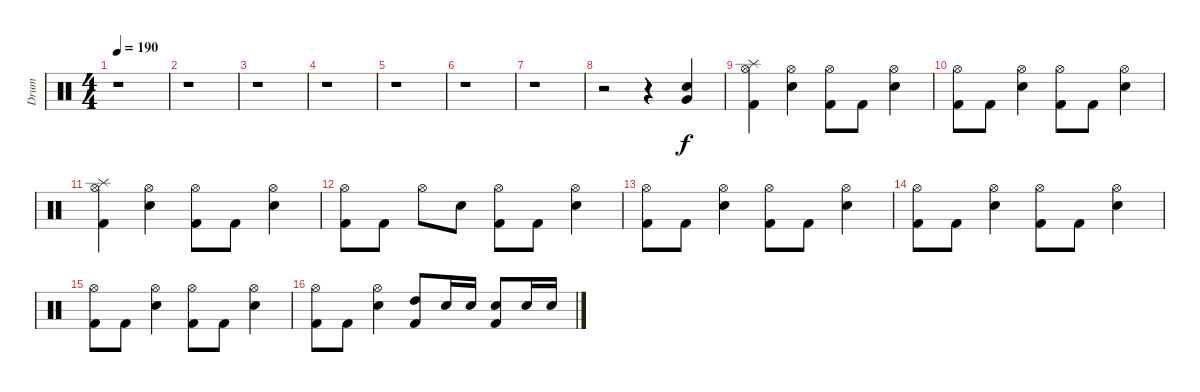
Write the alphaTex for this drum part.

\track ("Drum" "Drum") {instrument percussion}
\staff {score}
\articulation defaults
\ts (4 4)
\tempo 190
\clef neutral
\ks c
r.1{dy f} |
r.1 |
r.1 |
r.1 |
r.1 |
r.1 |
r.1 |
r.2 r.4 ("Very Low Tom (hit)" "Snare (hit) 2").4 |
("Splash (hit)" "Hi-Hat (open)" "Kick (hit) 2").4 ("Hi-Hat (open)" "Electric Snare (hit)").4 ("Hi-Hat (open)" "Kick (hit) 2").8 "Kick (hit) 2".8 ("Hi-Hat (open)" "Electric Snare (hit)").4 |
("Hi-Hat (open)" "Kick (hit) 2").8 "Kick (hit) 2".8 ("Hi-Hat (open)" "Electric Snare (hit)").4 ("Hi-Hat (open)" "Kick (hit) 2").8 "Kick (hit) 2".8 ("Hi-Hat (open)" "Electric Snare (hit)").4 |
("Splash (hit)" "Hi-Hat (open)" "Kick (hit) 2").4 ("Hi-Hat (open)" "Electric Snare (hit)").4 ("Hi-Hat (open)" "Kick (hit) 2").8 "Kick (hit) 2".8 ("Hi-Hat (open)" "Electric Snare (hit)").4 |
("Hi-Hat (open)" "Kick (hit) 2").8 "Kick (hit) 2".8 "Hi-Hat (open)".8 "Electric Snare (hit)".8 ("Hi-Hat (open)" "Kick (hit) 2").8 "Kick (hit) 2".8 ("Hi-Hat (open)" "Electric Snare (hit)").4 |
("Hi-Hat (open)" "Kick (hit) 2").8 "Kick (hit) 2".8 ("Hi-Hat (open)" "Electric Snare (hit)").4 ("Hi-Hat (open)" "Kick (hit) 2").8 "Kick (hit) 2".8 ("Hi-Hat (open)" "Electric Snare (hit)").4 |
("Hi-Hat (open)" "Kick (hit) 2").8 "Kick (hit) 2".8 ("Hi-Hat (open)" "Electric Snare (hit)").4 ("Hi-Hat (open)" "Kick (hit) 2").8 "Kick (hit) 2".8 ("Hi-Hat (open)" "Electric Snare (hit)").4 |
("Hi-Hat (open)" "Kick (hit) 2").8 "Kick (hit) 2".8 ("Hi-Hat (open)" "Electric Snare (hit)").4 ("Hi-Hat (open)" "Kick (hit) 2").8 "Kick (hit) 2".8 ("Hi-Hat (open)" "Electric Snare (hit)").4 |
("Hi-Hat (open)" "Kick (hit) 2").8 "Kick (hit) 2".8 ("Hi-Hat (open)" "Electric Snare (hit)").4 ("High Tom (hit)" "Kick (hit) 2").8 "Electric Snare (hit)".16 "Electric Snare (hit)".16 ("Electric Snare (hit)" "Kick (hit) 2").8 "Electric Snare (hit)".16 "Electric Snare (hit)".16
